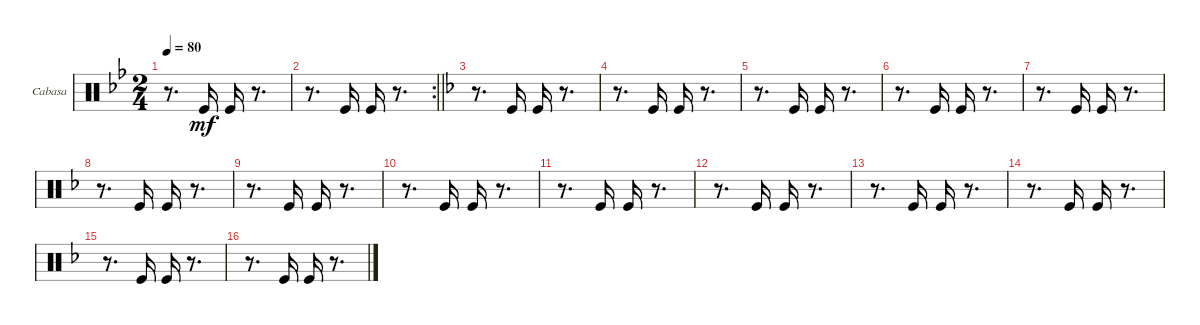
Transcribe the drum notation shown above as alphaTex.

\defaultSystemsLayout 4
\bracketExtendMode groupsimilarinstruments
\firstSystemTrackNameOrientation horizontal
\otherSystemsTrackNameOrientation horizontal
\track ("Cabasa" "Cabasa") {instrument percussion}
\staff {score}
\articulation defaults
\ts (2 4)
\tempo 80
\clef neutral
\ks bb
r.8{d dy mf} "Kick (hit)".16 "Kick (hit)".16 r.8{d} |
\rc 2
\barLineRight lightlight
r.8{d} "Kick (hit)".16 "Kick (hit)".16 r.8{d} |
\ks f
r.8{d} "Kick (hit)".16 "Kick (hit)".16 r.8{d} |
r.8{d} "Kick (hit)".16 "Kick (hit)".16 r.8{d} |
r.8{d} "Kick (hit)".16 "Kick (hit)".16 r.8{d} |
r.8{d} "Kick (hit)".16 "Kick (hit)".16 r.8{d} |
r.8{d} "Kick (hit)".16 "Kick (hit)".16 r.8{d} |
r.8{d} "Kick (hit)".16 "Kick (hit)".16 r.8{d} |
r.8{d} "Kick (hit)".16 "Kick (hit)".16 r.8{d} |
r.8{d} "Kick (hit)".16 "Kick (hit)".16 r.8{d} |
r.8{d} "Kick (hit)".16 "Kick (hit)".16 r.8{d} |
r.8{d} "Kick (hit)".16 "Kick (hit)".16 r.8{d} |
r.8{d} "Kick (hit)".16 "Kick (hit)".16 r.8{d} |
r.8{d} "Kick (hit)".16 "Kick (hit)".16 r.8{d} |
r.8{d} "Kick (hit)".16 "Kick (hit)".16 r.8{d} |
r.8{d} "Kick (hit)".16 "Kick (hit)".16 r.8{d}
